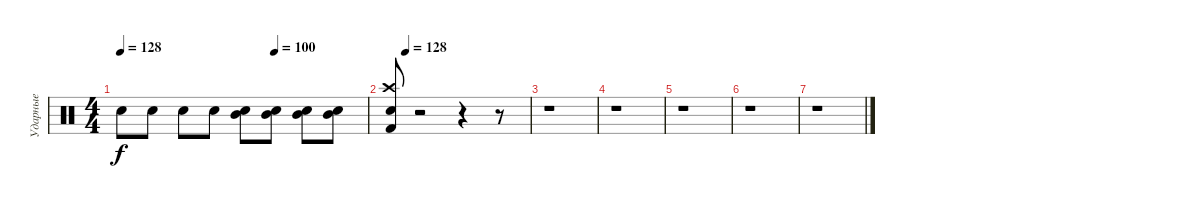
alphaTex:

\track ("Ударные" "Ударные") {instrument percussion}
\staff {score}
\articulation defaults
\ts (4 4)
\tempo 128
\tempo (100 0.625)
\clef neutral
\ks c "Snare (hit) 2".8{dy f} "Snare (hit) 2".8 "Snare (hit) 2".8 "Snare (hit) 2".8
("Snare (hit) 2" "Mid Tom (hit)").8 ("Snare (hit) 2" "Mid Tom (hit)").8 ("Snare (hit) 2" "Mid Tom (hit)").8 ("Snare (hit) 2" "Mid Tom (hit)").8 |
\tempo (128 0.125)
("Crash high (hit)" "Snare (hit) 2" "Kick (hit) 2").8 r.2 r.4 r.8 |
r.1 |
r.1 |
r.1 |
r.1 |
r.1
